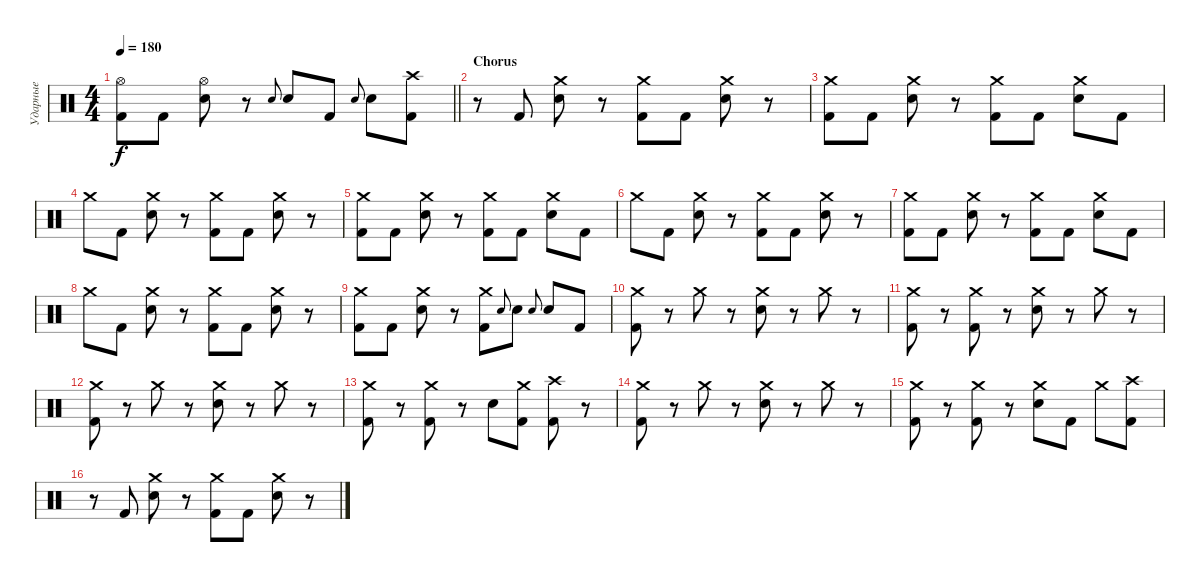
\track ("Ударные" "Ударные") {instrument percussion}
\staff {score}
\articulation defaults
\ts (4 4)
\tempo 180
\clef neutral
\barLineRight lightlight
\ks c
("Hi-Hat (open)" "Kick (hit) 2").8{dy f} "Kick (hit) 2".8 ("Hi-Hat (open)" "Snare (hit) 2").8 r.8 "Snare (hit) 2".8{gr onbeat} "Snare (hit) 2".8 "Kick (hit) 2".8 "Snare (hit) 2".8{gr onbeat} "Snare (hit) 2".8 ("Crash high (hit)" "Kick (hit) 2").8 |
\section ("" "Chorus")
r.8 "Kick (hit) 2".8 ("Crash medium (hit)" "Snare (hit) 2").8 r.8 ("Crash medium (hit)" "Kick (hit) 2").8 "Kick (hit) 2".8 ("Crash medium (hit)" "Snare (hit) 2").8 r.8 |
("Crash medium (hit)" "Kick (hit) 2").8 "Kick (hit) 2".8 ("Crash medium (hit)" "Snare (hit) 2").8 r.8 ("Crash medium (hit)" "Kick (hit) 2").8 "Kick (hit) 2".8 ("Crash medium (hit)" "Snare (hit) 2").8 "Kick (hit) 2".8 |
"Crash medium (hit)".8 "Kick (hit) 2".8 ("Crash medium (hit)" "Snare (hit) 2").8 r.8 ("Crash medium (hit)" "Kick (hit) 2").8 "Kick (hit) 2".8 ("Crash medium (hit)" "Snare (hit) 2").8 r.8 |
("Crash medium (hit)" "Kick (hit) 2").8 "Kick (hit) 2".8 ("Crash medium (hit)" "Snare (hit) 2").8 r.8 ("Crash medium (hit)" "Kick (hit) 2").8 "Kick (hit) 2".8 ("Crash medium (hit)" "Snare (hit) 2").8 "Kick (hit) 2".8 |
"Crash medium (hit)".8 "Kick (hit) 2".8 ("Crash medium (hit)" "Snare (hit) 2").8 r.8 ("Crash medium (hit)" "Kick (hit) 2").8 "Kick (hit) 2".8 ("Crash medium (hit)" "Snare (hit) 2").8 r.8 |
("Crash medium (hit)" "Kick (hit) 2").8 "Kick (hit) 2".8 ("Crash medium (hit)" "Snare (hit) 2").8 r.8 ("Crash medium (hit)" "Kick (hit) 2").8 "Kick (hit) 2".8 ("Crash medium (hit)" "Snare (hit) 2").8 "Kick (hit) 2".8 |
"Crash medium (hit)".8 "Kick (hit) 2".8 ("Crash medium (hit)" "Snare (hit) 2").8 r.8 ("Crash medium (hit)" "Kick (hit) 2").8 "Kick (hit) 2".8 ("Crash medium (hit)" "Snare (hit) 2").8 r.8 |
("Crash medium (hit)" "Kick (hit) 2").8 "Kick (hit) 2".8 ("Crash medium (hit)" "Snare (hit) 2").8 r.8 ("Crash medium (hit)" "Kick (hit) 2").8 "Snare (hit) 2".8{gr onbeat} "Snare (hit) 2".8 "Snare (hit) 2".8{gr onbeat} "Snare (hit) 2".8 "Kick (hit) 2".8 |
("Crash medium (hit)" "Kick (hit) 2").8 r.8 "Crash medium (hit)".8 r.8 ("Crash medium (hit)" "Snare (hit) 2").8 r.8 "Crash medium (hit)".8 r.8 |
("Crash medium (hit)" "Kick (hit) 2").8 r.8 ("Crash medium (hit)" "Kick (hit) 2").8 r.8 ("Crash medium (hit)" "Snare (hit) 2").8 r.8 "Crash medium (hit)".8 r.8 |
("Crash medium (hit)" "Kick (hit) 2").8 r.8 "Crash medium (hit)".8 r.8 ("Crash medium (hit)" "Snare (hit) 2").8 r.8 "Crash medium (hit)".8 r.8 |
("Crash medium (hit)" "Kick (hit) 2").8 r.8 ("Crash medium (hit)" "Kick (hit) 2").8 r.8 "Snare (hit) 2".8 ("Crash medium (hit)" "Kick (hit) 2").8 ("Crash high (hit)" "Kick (hit) 2").8 r.8 |
("Crash medium (hit)" "Kick (hit) 2").8 r.8 "Crash medium (hit)".8 r.8 ("Crash medium (hit)" "Snare (hit) 2").8 r.8 "Crash medium (hit)".8 r.8 |
("Crash medium (hit)" "Kick (hit) 2").8 r.8 ("Crash medium (hit)" "Kick (hit) 2").8 r.8 ("Crash medium (hit)" "Snare (hit) 2").8 "Kick (hit) 2".8 "Crash medium (hit)".8 ("Crash high (hit)" "Kick (hit) 2").8 |
r.8 "Kick (hit) 2".8 ("Crash medium (hit)" "Snare (hit) 2").8 r.8 ("Crash medium (hit)" "Kick (hit) 2").8 "Kick (hit) 2".8 ("Crash medium (hit)" "Snare (hit) 2").8 r.8
